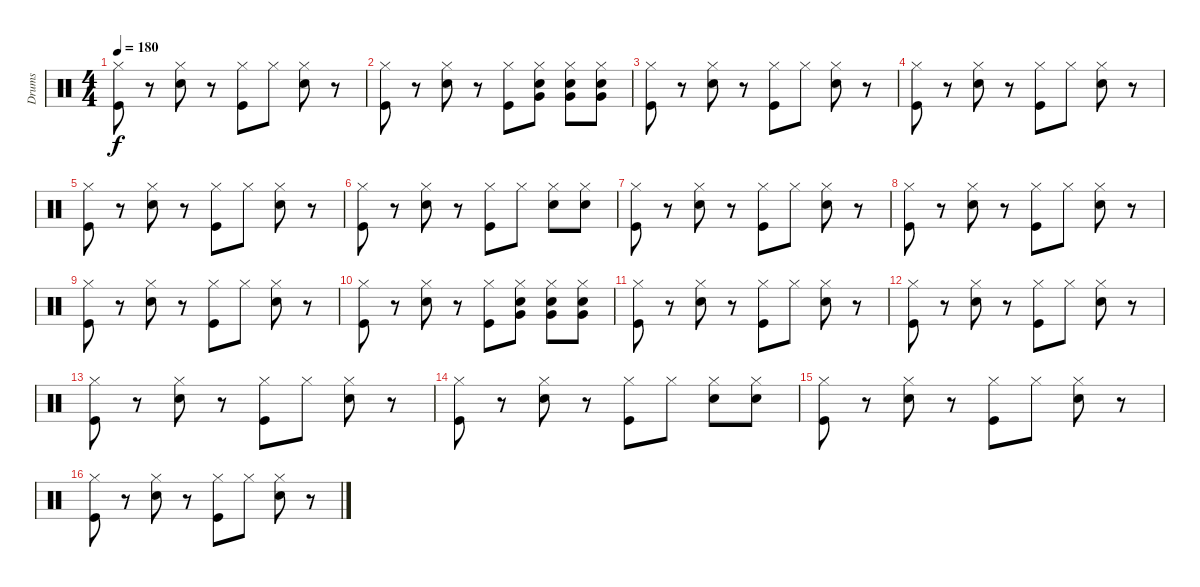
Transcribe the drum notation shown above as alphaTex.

\track ("Drums" "Drums") {instrument percussion}
\staff {score}
\articulation defaults
\ts (4 4)
\tempo 180
\clef neutral
\ks c
("Hi-Hat (closed)" "Kick (hit)").8{dy f} r.8 ("Hi-Hat (closed)" "Snare (hit) 2").8 r.8 ("Hi-Hat (closed)" "Kick (hit)").8 "Hi-Hat (closed)".8 ("Hi-Hat (closed)" "Snare (hit) 2").8 r.8 |
("Hi-Hat (closed)" "Kick (hit)").8 r.8 ("Hi-Hat (closed)" "Snare (hit) 2").8 r.8 ("Hi-Hat (closed)" "Kick (hit)").8 ("Hi-Hat (closed)" "Snare (hit) 2" "Very Low Tom (hit)").8 ("Hi-Hat (closed)" "Snare (hit) 2" "Very Low Tom (hit)").8 ("Hi-Hat (closed)" "Snare (hit) 2" "Very Low Tom (hit)").8 |
("Hi-Hat (closed)" "Kick (hit)").8 r.8 ("Hi-Hat (closed)" "Snare (hit) 2").8 r.8 ("Hi-Hat (closed)" "Kick (hit)").8 "Hi-Hat (closed)".8 ("Hi-Hat (closed)" "Snare (hit) 2").8 r.8 |
("Hi-Hat (closed)" "Kick (hit)").8 r.8 ("Hi-Hat (closed)" "Snare (hit) 2").8 r.8 ("Hi-Hat (closed)" "Kick (hit)").8 "Hi-Hat (closed)".8 ("Hi-Hat (closed)" "Snare (hit) 2").8 r.8 |
("Hi-Hat (closed)" "Kick (hit)").8 r.8 ("Hi-Hat (closed)" "Snare (hit) 2").8 r.8 ("Hi-Hat (closed)" "Kick (hit)").8 "Hi-Hat (closed)".8 ("Hi-Hat (closed)" "Snare (hit) 2").8 r.8 |
("Hi-Hat (closed)" "Kick (hit)").8 r.8 ("Hi-Hat (closed)" "Snare (hit) 2").8 r.8 ("Hi-Hat (closed)" "Kick (hit)").8 "Hi-Hat (closed)".8 ("Hi-Hat (closed)" "Snare (hit) 2").8 ("Hi-Hat (closed)" "Snare (hit) 2").8 |
("Hi-Hat (closed)" "Kick (hit)").8 r.8 ("Hi-Hat (closed)" "Snare (hit) 2").8 r.8 ("Hi-Hat (closed)" "Kick (hit)").8 "Hi-Hat (closed)".8 ("Hi-Hat (closed)" "Snare (hit) 2").8 r.8 |
("Hi-Hat (closed)" "Kick (hit)").8 r.8 ("Hi-Hat (closed)" "Snare (hit) 2").8 r.8 ("Hi-Hat (closed)" "Kick (hit)").8 "Hi-Hat (closed)".8 ("Hi-Hat (closed)" "Snare (hit) 2").8 r.8 |
("Hi-Hat (closed)" "Kick (hit)").8 r.8 ("Hi-Hat (closed)" "Snare (hit) 2").8 r.8 ("Hi-Hat (closed)" "Kick (hit)").8 "Hi-Hat (closed)".8 ("Hi-Hat (closed)" "Snare (hit) 2").8 r.8 |
("Hi-Hat (closed)" "Kick (hit)").8 r.8 ("Hi-Hat (closed)" "Snare (hit) 2").8 r.8 ("Hi-Hat (closed)" "Kick (hit)").8 ("Hi-Hat (closed)" "Snare (hit) 2" "Very Low Tom (hit)").8 ("Hi-Hat (closed)" "Snare (hit) 2" "Very Low Tom (hit)").8 ("Hi-Hat (closed)" "Snare (hit) 2" "Very Low Tom (hit)").8 |
("Hi-Hat (closed)" "Kick (hit)").8 r.8 ("Hi-Hat (closed)" "Snare (hit) 2").8 r.8 ("Hi-Hat (closed)" "Kick (hit)").8 "Hi-Hat (closed)".8 ("Hi-Hat (closed)" "Snare (hit) 2").8 r.8 |
("Hi-Hat (closed)" "Kick (hit)").8 r.8 ("Hi-Hat (closed)" "Snare (hit) 2").8 r.8 ("Hi-Hat (closed)" "Kick (hit)").8 "Hi-Hat (closed)".8 ("Hi-Hat (closed)" "Snare (hit) 2").8 r.8 |
("Hi-Hat (closed)" "Kick (hit)").8 r.8 ("Hi-Hat (closed)" "Snare (hit) 2").8 r.8 ("Hi-Hat (closed)" "Kick (hit)").8 "Hi-Hat (closed)".8 ("Hi-Hat (closed)" "Snare (hit) 2").8 r.8 |
("Hi-Hat (closed)" "Kick (hit)").8 r.8 ("Hi-Hat (closed)" "Snare (hit) 2").8 r.8 ("Hi-Hat (closed)" "Kick (hit)").8 "Hi-Hat (closed)".8 ("Hi-Hat (closed)" "Snare (hit) 2").8 ("Hi-Hat (closed)" "Snare (hit) 2").8 |
("Hi-Hat (closed)" "Kick (hit)").8 r.8 ("Hi-Hat (closed)" "Snare (hit) 2").8 r.8 ("Hi-Hat (closed)" "Kick (hit)").8 "Hi-Hat (closed)".8 ("Hi-Hat (closed)" "Snare (hit) 2").8 r.8 |
("Hi-Hat (closed)" "Kick (hit)").8 r.8 ("Hi-Hat (closed)" "Snare (hit) 2").8 r.8 ("Hi-Hat (closed)" "Kick (hit)").8 "Hi-Hat (closed)".8 ("Hi-Hat (closed)" "Snare (hit) 2").8 r.8
